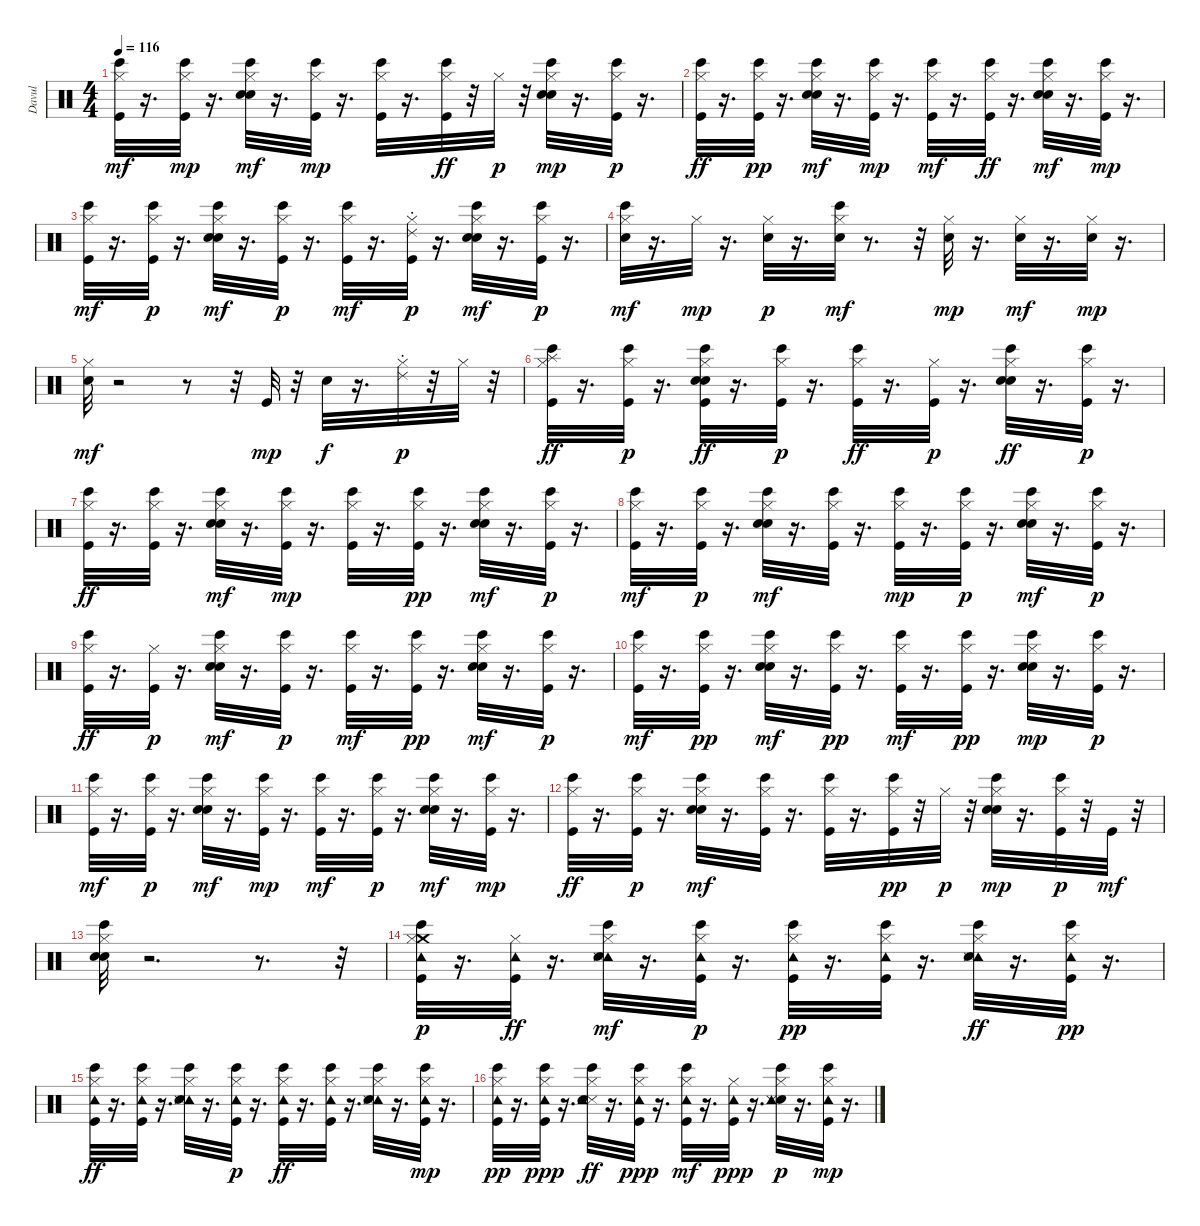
\track ("Davul" "Davul") {instrument percussion}
\staff {score}
\articulation defaults
\ts (4 4)
\tempo 116
\clef neutral
\ks c
("Bongo High (hit)" "Hi-Hat (closed)" "Kick (hit)").32{dy mf} r.16{d} ("Kick (hit)" "Bongo High (hit)" "Hi-Hat (closed)").32{dy mp} r.16{d} ("Bongo High (hit)" "Hi-Hat (closed)" "Electric Snare (hit)" "Snare (hit) 2").32{dy mf} r.16{d} ("Kick (hit)" "Bongo High (hit)" "Hi-Hat (closed)").32{dy mp} r.16{d} ("Bongo High (hit)" "Hi-Hat (closed)" "Kick (hit)").32 r.16{d} ("Bongo High (hit)" "Hi-Hat (closed)" "Kick (hit)").32{dy ff} r.32 "Hi-Hat (closed)".32{dy p} r.32 ("Snare (hit) 2" "Electric Snare (hit)" "Bongo High (hit)" "Hi-Hat (closed)").32{dy mp} r.16{d} ("Kick (hit)" "Hi-Hat (closed)" "Bongo High (hit)").32{dy p} r.16{d} |
("Bongo High (hit)" "Hi-Hat (closed)" "Kick (hit)").32{dy ff} r.16{d} ("Hi-Hat (closed)" "Kick (hit)" "Bongo High (hit)").32{dy pp} r.16{d} ("Snare (hit) 2" "Electric Snare (hit)" "Hi-Hat (closed)" "Bongo High (hit)").32{dy mf} r.16{d} ("Bongo High (hit)" "Hi-Hat (closed)" "Kick (hit)").32{dy mp} r.16{d} ("Kick (hit)" "Hi-Hat (closed)" "Bongo High (hit)").32{dy mf} r.16{d} ("Bongo High (hit)" "Hi-Hat (closed)" "Kick (hit)").32{dy ff} r.16{d} ("Bongo High (hit)" "Hi-Hat (closed)" "Electric Snare (hit)" "Snare (hit) 2").32{dy mf} r.16{d} ("Kick (hit)" "Bongo High (hit)" "Hi-Hat (closed)").32{dy mp} r.16{d} |
("Kick (hit)" "Hi-Hat (closed)" "Bongo High (hit)").32{dy mf} r.16{d} ("Kick (hit)" "Hi-Hat (closed)" "Bongo High (hit)").32{dy p} r.16{d} ("Bongo High (hit)" "Hi-Hat (closed)" "Electric Snare (hit)" "Snare (hit) 2").32{dy mf} r.16{d} ("Kick (hit)" "Hi-Hat (closed)" "Bongo High (hit)").32{dy p} r.16{d} ("Hi-Hat (closed)" "Kick (hit)" "Bongo High (hit)").32{dy mf} r.16{d} ("Hi-Hat (closed)" "Kick (hit)" "Ride (choke) 2").32{dy p} r.16{d} ("Electric Snare (hit)" "Snare (hit) 2" "Hi-Hat (closed)" "Bongo High (hit)").32{dy mf} r.16{d} ("Kick (hit)" "Hi-Hat (closed)" "Bongo High (hit)").32{dy p} r.16{d} |
("Snare (hit) 2" "Bongo High (hit)" "Hi-Hat (closed)").32{dy mf} r.16{d} "Hi-Hat (closed)".32{dy mp} r.16{d} ("Hi-Hat (closed)" "Snare (hit) 2").32{dy p} r.16{d} ("Bongo High (hit)" "Snare (hit) 2" "Hi-Hat (closed)").32{dy mf} r.8{d} r.32 ("Hi-Hat (closed)" "Snare (hit) 2").32{dy mp} r.16{d} ("Hi-Hat (closed)" "Snare (hit) 2").32{dy mf} r.16{d} ("Hi-Hat (closed)" "Snare (hit) 2").32{dy mp} r.16{d} |
("Hi-Hat (closed)" "Snare (hit) 2").32{dy mf} r.2 r.8 r.32 "Kick (hit)".32{dy mp} r.32 "Electric Snare (hit)".32{dy f} r.16{d} ("Ride (choke) 2" "Hi-Hat (closed)").32{dy p} r.32 "Hi-Hat (closed)".32 r.32 |
("Kick (hit)" "Hi-Hat (closed)" "Bongo High (hit)" "Splash (hit)").32{dy ff} r.16{d} ("Bongo High (hit)" "Hi-Hat (closed)" "Kick (hit)").32{dy p} r.16{d} ("Kick (hit)" "Electric Snare (hit)" "Snare (hit) 2" "Hi-Hat (closed)" "Bongo High (hit)").32{dy ff} r.16{d} ("Hi-Hat (closed)" "Kick (hit)" "Bongo High (hit)").32{dy p} r.16{d} ("Kick (hit)" "Hi-Hat (closed)" "Bongo High (hit)").32{dy ff} r.16{d} ("Kick (hit)" "Hi-Hat (closed)").32{dy p} r.16{d} ("Hi-Hat (closed)" "Snare (hit) 2" "Electric Snare (hit)" "Bongo High (hit)").32{dy ff} r.16{d} ("Kick (hit)" "Hi-Hat (closed)" "Bongo High (hit)").32{dy p} r.16{d} |
("Kick (hit)" "Hi-Hat (closed)" "Bongo High (hit)").32{dy ff} r.16{d} ("Bongo High (hit)" "Hi-Hat (closed)" "Kick (hit)").32 r.16{d} ("Bongo High (hit)" "Hi-Hat (closed)" "Snare (hit) 2" "Electric Snare (hit)").32{dy mf} r.16{d} ("Bongo High (hit)" "Hi-Hat (closed)" "Kick (hit)").32{dy mp} r.16{d} ("Kick (hit)" "Hi-Hat (closed)" "Bongo High (hit)").32 r.16{d} ("Kick (hit)" "Hi-Hat (closed)" "Bongo High (hit)").32{dy pp} r.16{d} ("Bongo High (hit)" "Snare (hit) 2" "Hi-Hat (closed)" "Electric Snare (hit)").32{dy mf} r.16{d} ("Kick (hit)" "Hi-Hat (closed)" "Bongo High (hit)").32{dy p} r.16{d} |
("Kick (hit)" "Bongo High (hit)" "Hi-Hat (closed)").32{dy mf} r.16{d} ("Kick (hit)" "Hi-Hat (closed)" "Bongo High (hit)").32{dy p} r.16{d} ("Electric Snare (hit)" "Bongo High (hit)" "Hi-Hat (closed)" "Snare (hit) 2").32{dy mf} r.16{d} ("Bongo High (hit)" "Hi-Hat (closed)" "Kick (hit)").32 r.16{d} ("Hi-Hat (closed)" "Kick (hit)" "Bongo High (hit)").32{dy mp} r.16{d} ("Kick (hit)" "Hi-Hat (closed)" "Bongo High (hit)").32{dy p} r.16{d} ("Bongo High (hit)" "Hi-Hat (closed)" "Snare (hit) 2" "Electric Snare (hit)").32{dy mf} r.16{d} ("Kick (hit)" "Hi-Hat (closed)" "Bongo High (hit)").32{dy p} r.16{d} |
("Hi-Hat (closed)" "Kick (hit)" "Bongo High (hit)").32{dy ff} r.16{d} ("Kick (hit)" "Hi-Hat (closed)").32{dy p} r.16{d} ("Hi-Hat (closed)" "Bongo High (hit)" "Electric Snare (hit)" "Snare (hit) 2").32{dy mf} r.16{d} ("Hi-Hat (closed)" "Kick (hit)" "Bongo High (hit)").32{dy p} r.16{d} ("Kick (hit)" "Hi-Hat (closed)" "Bongo High (hit)").32{dy mf} r.16{d} ("Hi-Hat (closed)" "Kick (hit)" "Bongo High (hit)").32{dy pp} r.16{d} ("Electric Snare (hit)" "Snare (hit) 2" "Bongo High (hit)" "Hi-Hat (closed)").32{dy mf} r.16{d} ("Kick (hit)" "Hi-Hat (closed)" "Bongo High (hit)").32{dy p} r.16{d} |
("Kick (hit)" "Hi-Hat (closed)" "Bongo High (hit)").32{dy mf} r.16{d} ("Kick (hit)" "Hi-Hat (closed)" "Bongo High (hit)").32{dy pp} r.16{d} ("Bongo High (hit)" "Snare (hit) 2" "Hi-Hat (closed)" "Electric Snare (hit)").32{dy mf} r.16{d} ("Kick (hit)" "Hi-Hat (closed)" "Bongo High (hit)").32{dy pp} r.16{d} ("Hi-Hat (closed)" "Kick (hit)" "Bongo High (hit)").32{dy mf} r.16{d} ("Kick (hit)" "Hi-Hat (closed)" "Bongo High (hit)").32{dy pp} r.16{d} ("Bongo High (hit)" "Hi-Hat (closed)" "Electric Snare (hit)" "Snare (hit) 2").32{dy mp} r.16{d} ("Hi-Hat (closed)" "Kick (hit)" "Bongo High (hit)").32{dy p} r.16{d} |
("Kick (hit)" "Hi-Hat (closed)" "Bongo High (hit)").32{dy mf} r.16{d} ("Kick (hit)" "Bongo High (hit)" "Hi-Hat (closed)").32{dy p} r.16{d} ("Electric Snare (hit)" "Bongo High (hit)" "Hi-Hat (closed)" "Snare (hit) 2").32{dy mf} r.16{d} ("Bongo High (hit)" "Hi-Hat (closed)" "Kick (hit)").32{dy mp} r.16{d} ("Kick (hit)" "Hi-Hat (closed)" "Bongo High (hit)").32{dy mf} r.16{d} ("Hi-Hat (closed)" "Kick (hit)" "Bongo High (hit)").32{dy p} r.16{d} ("Snare (hit) 2" "Electric Snare (hit)" "Hi-Hat (closed)" "Bongo High (hit)").32{dy mf} r.16{d} ("Bongo High (hit)" "Hi-Hat (closed)" "Kick (hit)").32{dy mp} r.16{d} |
("Bongo High (hit)" "Hi-Hat (closed)" "Kick (hit)").32{dy ff} r.16{d} ("Kick (hit)" "Hi-Hat (closed)" "Bongo High (hit)").32{dy p} r.16{d} ("Snare (hit) 2" "Electric Snare (hit)" "Hi-Hat (closed)" "Bongo High (hit)").32{dy mf} r.16{d} ("Bongo High (hit)" "Hi-Hat (closed)" "Kick (hit)").32 r.16{d} ("Bongo High (hit)" "Hi-Hat (closed)" "Kick (hit)").32 r.16{d} ("Kick (hit)" "Hi-Hat (closed)" "Bongo High (hit)").32{dy pp} r.32 "Hi-Hat (closed)".32{dy p} r.32 ("Snare (hit) 2" "Electric Snare (hit)" "Hi-Hat (closed)" "Bongo High (hit)").32{dy mp} r.16{d} ("Hi-Hat (closed)" "Kick (hit)" "Bongo High (hit)").32{dy p} r.32 "Kick (hit)".32{dy mf} r.32 |
("Bongo High (hit)" "Snare (hit) 2" "Electric Snare (hit)" "Hi-Hat (closed)").32 r.2{d} r.8{d} r.32 |
("Kick (hit)" "Crash medium (hit)" "Hi-Hat (closed)" "Bongo High (hit)" "Tambourine (hit)").32{dy p} r.16{d} ("Tambourine (hit)" "Hi-Hat (closed)" "Kick (hit)").32{dy ff} r.16{d} ("Tambourine (hit)" "Hi-Hat (closed)" "Snare (side stick) 3" "Snare (hit) 2" "Bongo High (hit)").32{dy mf} r.16{d} ("Tambourine (hit)" "Bongo High (hit)" "Kick (hit)" "Hi-Hat (closed)").32{dy p} r.16{d} ("Hi-Hat (closed)" "Kick (hit)" "Bongo High (hit)" "Tambourine (hit)").32{dy pp} r.16{d} ("Hi-Hat (closed)" "Kick (hit)" "Bongo High (hit)" "Tambourine (hit)").32 r.16{d} ("Tambourine (hit)" "Snare (hit) 2" "Hi-Hat (closed)" "Bongo High (hit)" "Snare (side stick) 3").32{dy ff} r.16{d} ("Kick (hit)" "Hi-Hat (closed)" "Bongo High (hit)" "Tambourine (hit)").32{dy pp} r.16{d} |
("Hi-Hat (closed)" "Bongo High (hit)" "Tambourine (hit)" "Kick (hit)").32{dy ff} r.16{d} ("Tambourine (hit)" "Hi-Hat (closed)" "Bongo High (hit)" "Kick (hit)").32 r.16{d} ("Bongo High (hit)" "Tambourine (hit)" "Hi-Hat (closed)" "Snare (hit) 2" "Snare (side stick) 3").32 r.16{d} ("Tambourine (hit)" "Bongo High (hit)" "Kick (hit)" "Hi-Hat (closed)").32{dy p} r.16{d} ("Bongo High (hit)" "Tambourine (hit)" "Hi-Hat (closed)" "Kick (hit)").32{dy ff} r.16{d} ("Hi-Hat (closed)" "Bongo High (hit)" "Tambourine (hit)" "Kick (hit)").32 r.16{d} ("Tambourine (hit)" "Hi-Hat (closed)" "Snare (hit) 2" "Bongo High (hit)" "Snare (side stick) 3").32 r.16{d} ("Bongo High (hit)" "Tambourine (hit)" "Hi-Hat (closed)" "Kick (hit)").32{dy mp} r.16{d} |
("Kick (hit)" "Hi-Hat (closed)" "Bongo High (hit)" "Tambourine (hit)").32{dy pp} r.16{d} ("Kick (hit)" "Hi-Hat (closed)" "Bongo High (hit)" "Tambourine (hit)").32{dy ppp} r.16{d} ("Snare (side stick) 3" "Hi-Hat (closed)" "Snare (hit) 2" "Tambourine (hit)" "Bongo High (hit)").32{dy ff} r.16{d} ("Kick (hit)" "Hi-Hat (closed)" "Bongo High (hit)" "Tambourine (hit)").32{dy ppp} r.16{d} ("Tambourine (hit)" "Bongo High (hit)" "Kick (hit)" "Hi-Hat (closed)").32{dy mf} r.16{d} ("Kick (hit)" "Hi-Hat (closed)" "Tambourine (hit)").32{dy ppp} r.16{d} ("Hi-Hat (closed)" "Snare (hit) 2" "Snare (side stick) 3" "Bongo High (hit)" "Tambourine (hit)").32{dy p} r.16{d} ("Tambourine (hit)" "Hi-Hat (closed)" "Bongo High (hit)" "Kick (hit)").32{dy mp} r.16{d}
